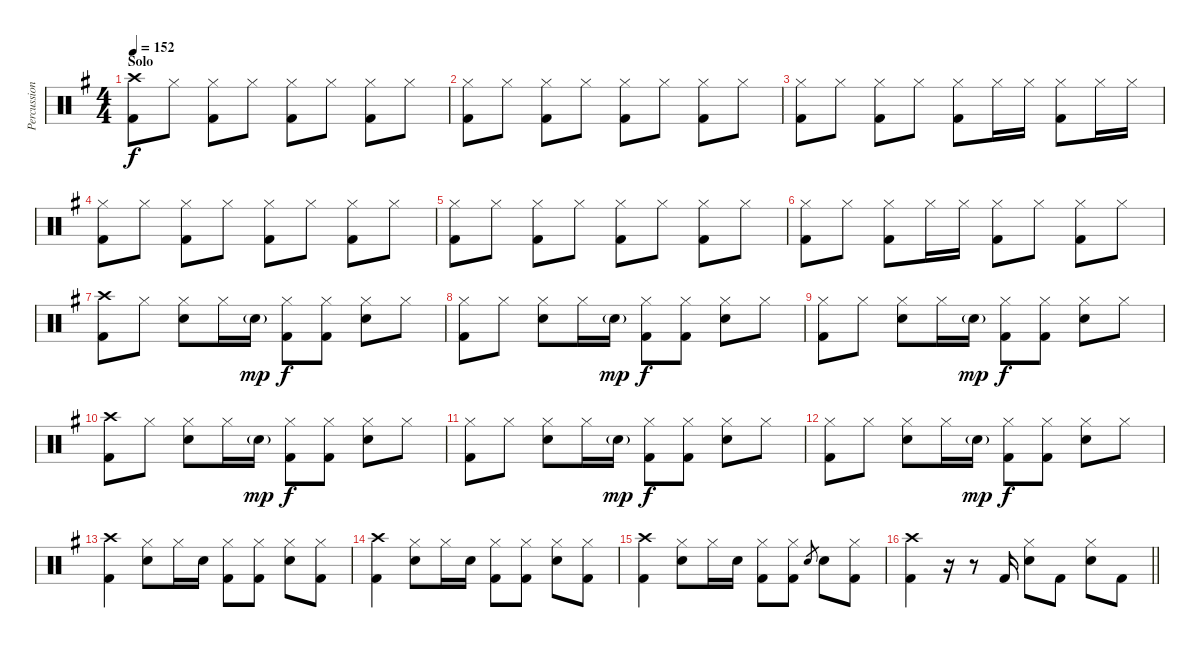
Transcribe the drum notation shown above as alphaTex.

\track ("Percussion" "Percussion") {instrument percussion}
\staff {score}
\articulation defaults
\ts (4 4)
\section ("" "Solo")
\tempo 152
\clef neutral
\ks eminor
("Crash high (hit)" "Kick (hit) 2").8{dy f} "Hi-Hat (closed)".8 ("Hi-Hat (closed)" "Kick (hit) 2").8 "Hi-Hat (closed)".8 ("Hi-Hat (closed)" "Kick (hit) 2").8 "Hi-Hat (closed)".8 ("Hi-Hat (closed)" "Kick (hit) 2").8 "Hi-Hat (closed)".8 |
("Hi-Hat (closed)" "Kick (hit) 2").8 "Hi-Hat (closed)".8 ("Hi-Hat (closed)" "Kick (hit) 2").8 "Hi-Hat (closed)".8 ("Hi-Hat (closed)" "Kick (hit) 2").8 "Hi-Hat (closed)".8 ("Hi-Hat (closed)" "Kick (hit) 2").8 "Hi-Hat (closed)".8 |
("Hi-Hat (closed)" "Kick (hit) 2").8 "Hi-Hat (closed)".8 ("Hi-Hat (closed)" "Kick (hit) 2").8 "Hi-Hat (closed)".8 ("Hi-Hat (closed)" "Kick (hit) 2").8 "Hi-Hat (closed)".16 "Hi-Hat (closed)".16 ("Hi-Hat (closed)" "Kick (hit) 2").8 "Hi-Hat (closed)".16 "Hi-Hat (closed)".16 |
("Hi-Hat (closed)" "Kick (hit) 2").8 "Hi-Hat (closed)".8 ("Hi-Hat (closed)" "Kick (hit) 2").8 "Hi-Hat (closed)".8 ("Hi-Hat (closed)" "Kick (hit) 2").8 "Hi-Hat (closed)".8 ("Hi-Hat (closed)" "Kick (hit) 2").8 "Hi-Hat (closed)".8 |
("Hi-Hat (closed)" "Kick (hit) 2").8 "Hi-Hat (closed)".8 ("Hi-Hat (closed)" "Kick (hit) 2").8 "Hi-Hat (closed)".8 ("Hi-Hat (closed)" "Kick (hit) 2").8 "Hi-Hat (closed)".8 ("Hi-Hat (closed)" "Kick (hit) 2").8 "Hi-Hat (closed)".8 |
("Hi-Hat (closed)" "Kick (hit) 2").8 "Hi-Hat (closed)".8 ("Hi-Hat (closed)" "Kick (hit) 2").8 "Hi-Hat (closed)".16 "Hi-Hat (closed)".16 ("Hi-Hat (closed)" "Kick (hit) 2").8 "Hi-Hat (closed)".8 ("Hi-Hat (closed)" "Kick (hit) 2").8 "Hi-Hat (closed)".8 |
("Crash high (hit)" "Kick (hit) 2").8 "Hi-Hat (closed)".8 ("Hi-Hat (closed)" "Snare (hit) 2").8 "Hi-Hat (closed)".16 "Snare (hit) 2"{g}.16{dy mp} ("Hi-Hat (closed)" "Kick (hit) 2").8{dy f} ("Hi-Hat (closed)" "Kick (hit) 2").8 ("Hi-Hat (closed)" "Snare (hit) 2").8 "Hi-Hat (closed)".8 |
("Hi-Hat (closed)" "Kick (hit) 2").8 "Hi-Hat (closed)".8 ("Hi-Hat (closed)" "Snare (hit) 2").8 "Hi-Hat (closed)".16 "Snare (hit) 2"{g}.16{dy mp} ("Hi-Hat (closed)" "Kick (hit) 2").8{dy f} ("Hi-Hat (closed)" "Kick (hit) 2").8 ("Hi-Hat (closed)" "Snare (hit) 2").8 "Hi-Hat (closed)".8 |
("Hi-Hat (closed)" "Kick (hit) 2").8 "Hi-Hat (closed)".8 ("Hi-Hat (closed)" "Snare (hit) 2").8 "Hi-Hat (closed)".16 "Snare (hit) 2"{g}.16{dy mp} ("Hi-Hat (closed)" "Kick (hit) 2").8{dy f} ("Hi-Hat (closed)" "Kick (hit) 2").8 ("Hi-Hat (closed)" "Snare (hit) 2").8 "Hi-Hat (closed)".8 |
("Crash high (hit)" "Kick (hit) 2").8 "Hi-Hat (closed)".8 ("Hi-Hat (closed)" "Snare (hit) 2").8 "Hi-Hat (closed)".16 "Snare (hit) 2"{g}.16{dy mp} ("Hi-Hat (closed)" "Kick (hit) 2").8{dy f} ("Hi-Hat (closed)" "Kick (hit) 2").8 ("Hi-Hat (closed)" "Snare (hit) 2").8 "Hi-Hat (closed)".8 |
("Hi-Hat (closed)" "Kick (hit) 2").8 "Hi-Hat (closed)".8 ("Hi-Hat (closed)" "Snare (hit) 2").8 "Hi-Hat (closed)".16 "Snare (hit) 2"{g}.16{dy mp} ("Hi-Hat (closed)" "Kick (hit) 2").8{dy f} ("Hi-Hat (closed)" "Kick (hit) 2").8 ("Hi-Hat (closed)" "Snare (hit) 2").8 "Hi-Hat (closed)".8 |
("Hi-Hat (closed)" "Kick (hit) 2").8 "Hi-Hat (closed)".8 ("Hi-Hat (closed)" "Snare (hit) 2").8 "Hi-Hat (closed)".16 "Snare (hit) 2"{g}.16{dy mp} ("Hi-Hat (closed)" "Kick (hit) 2").8{dy f} ("Hi-Hat (closed)" "Kick (hit) 2").8 ("Hi-Hat (closed)" "Snare (hit) 2").8 "Hi-Hat (closed)".8 |
("Crash high (hit)" "Kick (hit) 2").4 ("Hi-Hat (closed)" "Snare (hit) 2").8 "Hi-Hat (closed)".16 "Snare (hit) 2".16 ("Hi-Hat (closed)" "Kick (hit) 2").8 ("Hi-Hat (closed)" "Kick (hit) 2").8 ("Hi-Hat (closed)" "Snare (hit) 2").8 ("Hi-Hat (closed)" "Kick (hit) 2").8 |
("Crash high (hit)" "Kick (hit) 2").4 ("Hi-Hat (closed)" "Snare (hit) 2").8 "Hi-Hat (closed)".16 "Snare (hit) 2".16 ("Hi-Hat (closed)" "Kick (hit) 2").8 ("Hi-Hat (closed)" "Kick (hit) 2").8 ("Hi-Hat (closed)" "Snare (hit) 2").8 ("Hi-Hat (closed)" "Kick (hit) 2").8 |
("Crash high (hit)" "Kick (hit) 2").4 ("Hi-Hat (closed)" "Snare (hit) 2").8 "Hi-Hat (closed)".16 "Snare (hit) 2".16 ("Hi-Hat (closed)" "Kick (hit) 2").8 ("Hi-Hat (closed)" "Kick (hit) 2").8 "Snare (hit) 2".8{gr} "Snare (hit) 2".8 ("Hi-Hat (closed)" "Kick (hit) 2").8 |
\barLineRight lightlight
("Crash high (hit)" "Kick (hit) 2").4 r.16 r.8 "Kick (hit) 2".16 ("Hi-Hat (closed)" "Snare (hit) 2").8 "Kick (hit) 2".8 ("Hi-Hat (closed)" "Snare (hit) 2").8 "Kick (hit) 2".8
